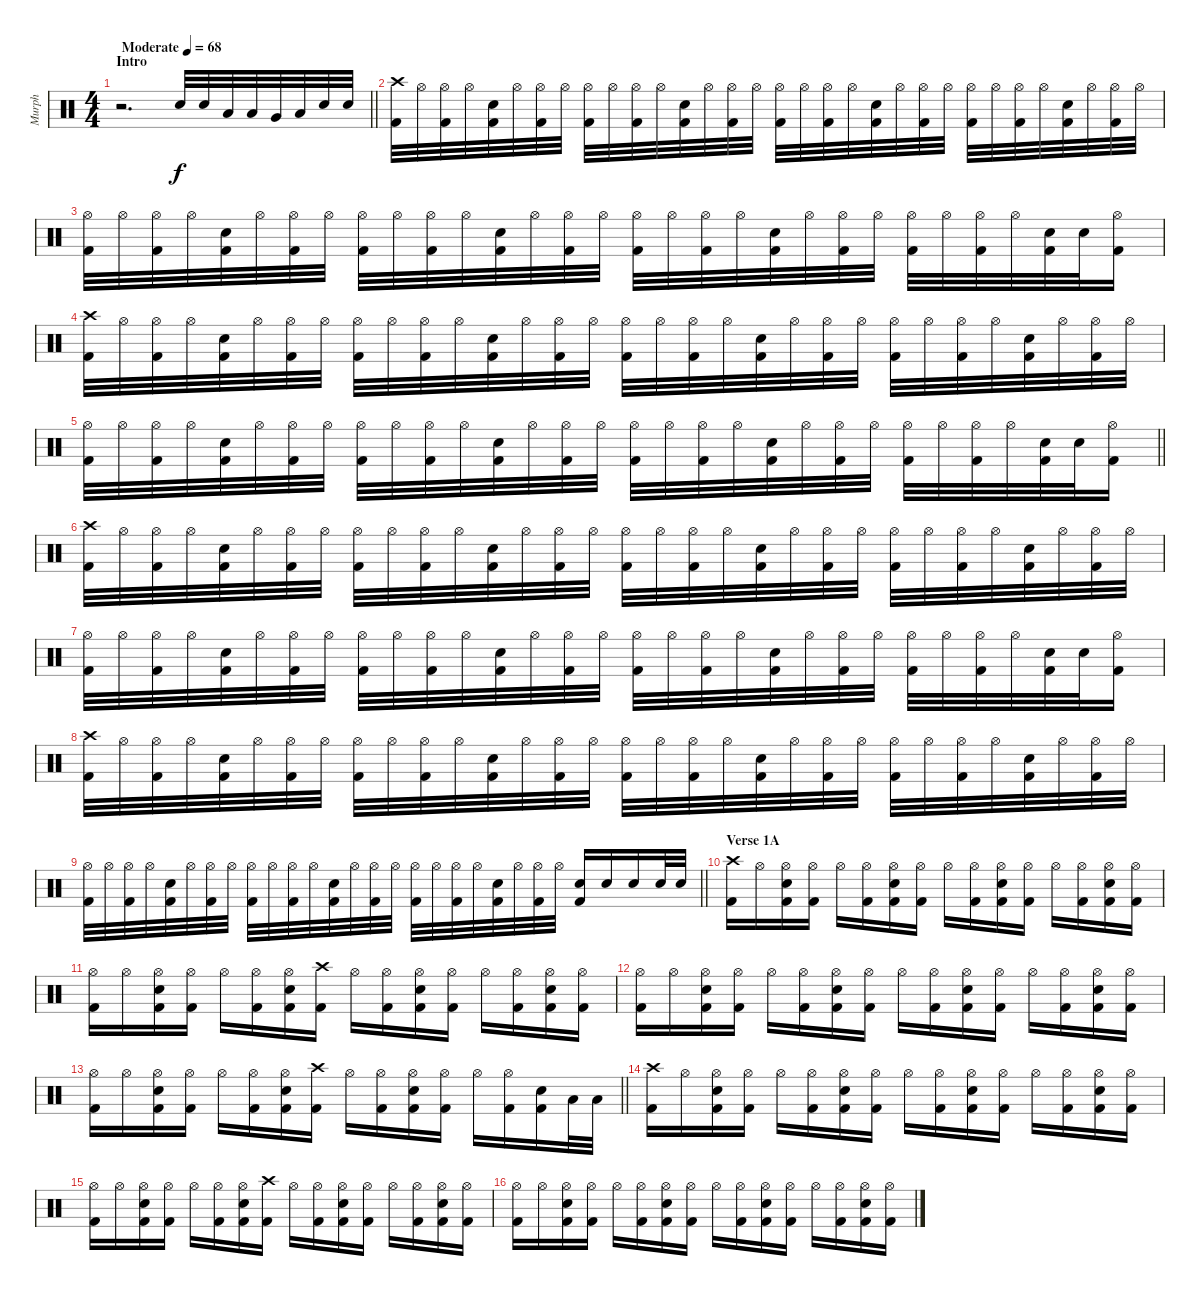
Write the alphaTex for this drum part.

\track ("Murph" "Murph") {instrument percussion}
\staff {score}
\articulation defaults
\ts (4 4)
\section ("" "Intro")
\tempo (68 "Moderate")
\clef neutral
\barLineRight lightlight
\ks c
r.2{d dy f} "Snare (hit) 2".32 "Snare (hit) 2".32 "Low Tom (hit)".32 "Low Floor Tom (hit)".32 "Very Low Tom (hit)".32 "Low Floor Tom (hit)".32 "Snare (hit) 2".32 "Snare (hit) 2".32 |
("Kick (hit) 2" "Crash high (hit)").32 "Hi-Hat (open)".32 ("Kick (hit) 2" "Hi-Hat (open)").32 "Hi-Hat (open)".32 ("Kick (hit) 2" "Snare (hit) 2").32 "Hi-Hat (open)".32 ("Kick (hit) 2" "Hi-Hat (open)").32 "Hi-Hat (open)".32 ("Kick (hit) 2" "Hi-Hat (open)").32 "Hi-Hat (open)".32 ("Kick (hit) 2" "Hi-Hat (open)").32 "Hi-Hat (open)".32 ("Kick (hit) 2" "Snare (hit) 2").32 "Hi-Hat (open)".32 ("Kick (hit) 2" "Hi-Hat (open)").32 "Hi-Hat (open)".32 ("Kick (hit) 2" "Hi-Hat (open)").32 "Hi-Hat (open)".32 ("Kick (hit) 2" "Hi-Hat (open)").32 "Hi-Hat (open)".32 ("Kick (hit) 2" "Snare (hit) 2").32 "Hi-Hat (open)".32 ("Kick (hit) 2" "Hi-Hat (open)").32 "Hi-Hat (open)".32 ("Kick (hit) 2" "Hi-Hat (open)").32 "Hi-Hat (open)".32 ("Kick (hit) 2" "Hi-Hat (open)").32 "Hi-Hat (open)".32 ("Kick (hit) 2" "Snare (hit) 2").32 "Hi-Hat (open)".32 ("Kick (hit) 2" "Hi-Hat (open)").32 "Hi-Hat (open)".32 |
("Kick (hit) 2" "Hi-Hat (open)").32 "Hi-Hat (open)".32 ("Kick (hit) 2" "Hi-Hat (open)").32 "Hi-Hat (open)".32 ("Kick (hit) 2" "Snare (hit) 2").32 "Hi-Hat (open)".32 ("Kick (hit) 2" "Hi-Hat (open)").32 "Hi-Hat (open)".32 ("Kick (hit) 2" "Hi-Hat (open)").32 "Hi-Hat (open)".32 ("Kick (hit) 2" "Hi-Hat (open)").32 "Hi-Hat (open)".32 ("Kick (hit) 2" "Snare (hit) 2").32 "Hi-Hat (open)".32 ("Kick (hit) 2" "Hi-Hat (open)").32 "Hi-Hat (open)".32 ("Kick (hit) 2" "Hi-Hat (open)").32 "Hi-Hat (open)".32 ("Kick (hit) 2" "Hi-Hat (open)").32 "Hi-Hat (open)".32 ("Kick (hit) 2" "Snare (hit) 2").32 "Hi-Hat (open)".32 ("Kick (hit) 2" "Hi-Hat (open)").32 "Hi-Hat (open)".32 ("Kick (hit) 2" "Hi-Hat (open)").32 "Hi-Hat (open)".32 ("Kick (hit) 2" "Hi-Hat (open)").32 "Hi-Hat (open)".32 ("Kick (hit) 2" "Snare (hit) 2").32 "Snare (hit) 2".32 ("Kick (hit) 2" "Hi-Hat (open)").16 |
("Kick (hit) 2" "Crash high (hit)").32 "Hi-Hat (open)".32 ("Kick (hit) 2" "Hi-Hat (open)").32 "Hi-Hat (open)".32 ("Kick (hit) 2" "Snare (hit) 2").32 "Hi-Hat (open)".32 ("Kick (hit) 2" "Hi-Hat (open)").32 "Hi-Hat (open)".32 ("Kick (hit) 2" "Hi-Hat (open)").32 "Hi-Hat (open)".32 ("Kick (hit) 2" "Hi-Hat (open)").32 "Hi-Hat (open)".32 ("Kick (hit) 2" "Snare (hit) 2").32 "Hi-Hat (open)".32 ("Kick (hit) 2" "Hi-Hat (open)").32 "Hi-Hat (open)".32 ("Kick (hit) 2" "Hi-Hat (open)").32 "Hi-Hat (open)".32 ("Kick (hit) 2" "Hi-Hat (open)").32 "Hi-Hat (open)".32 ("Kick (hit) 2" "Snare (hit) 2").32 "Hi-Hat (open)".32 ("Kick (hit) 2" "Hi-Hat (open)").32 "Hi-Hat (open)".32 ("Kick (hit) 2" "Hi-Hat (open)").32 "Hi-Hat (open)".32 ("Kick (hit) 2" "Hi-Hat (open)").32 "Hi-Hat (open)".32 ("Kick (hit) 2" "Snare (hit) 2").32 "Hi-Hat (open)".32 ("Kick (hit) 2" "Hi-Hat (open)").32 "Hi-Hat (open)".32 |
\barLineRight lightlight
("Kick (hit) 2" "Hi-Hat (open)").32 "Hi-Hat (open)".32 ("Kick (hit) 2" "Hi-Hat (open)").32 "Hi-Hat (open)".32 ("Kick (hit) 2" "Snare (hit) 2").32 "Hi-Hat (open)".32 ("Kick (hit) 2" "Hi-Hat (open)").32 "Hi-Hat (open)".32 ("Kick (hit) 2" "Hi-Hat (open)").32 "Hi-Hat (open)".32 ("Kick (hit) 2" "Hi-Hat (open)").32 "Hi-Hat (open)".32 ("Kick (hit) 2" "Snare (hit) 2").32 "Hi-Hat (open)".32 ("Kick (hit) 2" "Hi-Hat (open)").32 "Hi-Hat (open)".32 ("Kick (hit) 2" "Hi-Hat (open)").32 "Hi-Hat (open)".32 ("Kick (hit) 2" "Hi-Hat (open)").32 "Hi-Hat (open)".32 ("Kick (hit) 2" "Snare (hit) 2").32 "Hi-Hat (open)".32 ("Kick (hit) 2" "Hi-Hat (open)").32 "Hi-Hat (open)".32 ("Kick (hit) 2" "Hi-Hat (open)").32 "Hi-Hat (open)".32 ("Kick (hit) 2" "Hi-Hat (open)").32 "Hi-Hat (open)".32 ("Kick (hit) 2" "Snare (hit) 2").32 "Snare (hit) 2".32 ("Kick (hit) 2" "Hi-Hat (open)").16 |
("Kick (hit) 2" "Crash high (hit)").32 "Hi-Hat (open)".32 ("Kick (hit) 2" "Hi-Hat (open)").32 "Hi-Hat (open)".32 ("Kick (hit) 2" "Snare (hit) 2").32 "Hi-Hat (open)".32 ("Kick (hit) 2" "Hi-Hat (open)").32 "Hi-Hat (open)".32 ("Kick (hit) 2" "Hi-Hat (open)").32 "Hi-Hat (open)".32 ("Kick (hit) 2" "Hi-Hat (open)").32 "Hi-Hat (open)".32 ("Kick (hit) 2" "Snare (hit) 2").32 "Hi-Hat (open)".32 ("Kick (hit) 2" "Hi-Hat (open)").32 "Hi-Hat (open)".32 ("Kick (hit) 2" "Hi-Hat (open)").32 "Hi-Hat (open)".32 ("Kick (hit) 2" "Hi-Hat (open)").32 "Hi-Hat (open)".32 ("Kick (hit) 2" "Snare (hit) 2").32 "Hi-Hat (open)".32 ("Kick (hit) 2" "Hi-Hat (open)").32 "Hi-Hat (open)".32 ("Kick (hit) 2" "Hi-Hat (open)").32 "Hi-Hat (open)".32 ("Kick (hit) 2" "Hi-Hat (open)").32 "Hi-Hat (open)".32 ("Kick (hit) 2" "Snare (hit) 2").32 "Hi-Hat (open)".32 ("Kick (hit) 2" "Hi-Hat (open)").32 "Hi-Hat (open)".32 |
("Kick (hit) 2" "Hi-Hat (open)").32 "Hi-Hat (open)".32 ("Kick (hit) 2" "Hi-Hat (open)").32 "Hi-Hat (open)".32 ("Kick (hit) 2" "Snare (hit) 2").32 "Hi-Hat (open)".32 ("Kick (hit) 2" "Hi-Hat (open)").32 "Hi-Hat (open)".32 ("Kick (hit) 2" "Hi-Hat (open)").32 "Hi-Hat (open)".32 ("Kick (hit) 2" "Hi-Hat (open)").32 "Hi-Hat (open)".32 ("Kick (hit) 2" "Snare (hit) 2").32 "Hi-Hat (open)".32 ("Kick (hit) 2" "Hi-Hat (open)").32 "Hi-Hat (open)".32 ("Kick (hit) 2" "Hi-Hat (open)").32 "Hi-Hat (open)".32 ("Kick (hit) 2" "Hi-Hat (open)").32 "Hi-Hat (open)".32 ("Kick (hit) 2" "Snare (hit) 2").32 "Hi-Hat (open)".32 ("Kick (hit) 2" "Hi-Hat (open)").32 "Hi-Hat (open)".32 ("Kick (hit) 2" "Hi-Hat (open)").32 "Hi-Hat (open)".32 ("Kick (hit) 2" "Hi-Hat (open)").32 "Hi-Hat (open)".32 ("Kick (hit) 2" "Snare (hit) 2").32 "Snare (hit) 2".32 ("Kick (hit) 2" "Hi-Hat (open)").16 |
("Kick (hit) 2" "Crash high (hit)").32 "Hi-Hat (open)".32 ("Kick (hit) 2" "Hi-Hat (open)").32 "Hi-Hat (open)".32 ("Kick (hit) 2" "Snare (hit) 2").32 "Hi-Hat (open)".32 ("Kick (hit) 2" "Hi-Hat (open)").32 "Hi-Hat (open)".32 ("Kick (hit) 2" "Hi-Hat (open)").32 "Hi-Hat (open)".32 ("Kick (hit) 2" "Hi-Hat (open)").32 "Hi-Hat (open)".32 ("Kick (hit) 2" "Snare (hit) 2").32 "Hi-Hat (open)".32 ("Kick (hit) 2" "Hi-Hat (open)").32 "Hi-Hat (open)".32 ("Kick (hit) 2" "Hi-Hat (open)").32 "Hi-Hat (open)".32 ("Kick (hit) 2" "Hi-Hat (open)").32 "Hi-Hat (open)".32 ("Kick (hit) 2" "Snare (hit) 2").32 "Hi-Hat (open)".32 ("Kick (hit) 2" "Hi-Hat (open)").32 "Hi-Hat (open)".32 ("Kick (hit) 2" "Hi-Hat (open)").32 "Hi-Hat (open)".32 ("Kick (hit) 2" "Hi-Hat (open)").32 "Hi-Hat (open)".32 ("Kick (hit) 2" "Snare (hit) 2").32 "Hi-Hat (open)".32 ("Kick (hit) 2" "Hi-Hat (open)").32 "Hi-Hat (open)".32 |
\barLineRight lightlight
("Kick (hit) 2" "Hi-Hat (open)").32 "Hi-Hat (open)".32 ("Kick (hit) 2" "Hi-Hat (open)").32 "Hi-Hat (open)".32 ("Kick (hit) 2" "Snare (hit) 2").32 "Hi-Hat (open)".32 ("Kick (hit) 2" "Hi-Hat (open)").32 "Hi-Hat (open)".32 ("Kick (hit) 2" "Hi-Hat (open)").32 "Hi-Hat (open)".32 ("Kick (hit) 2" "Hi-Hat (open)").32 "Hi-Hat (open)".32 ("Kick (hit) 2" "Snare (hit) 2").32 "Hi-Hat (open)".32 ("Kick (hit) 2" "Hi-Hat (open)").32 "Hi-Hat (open)".32 ("Kick (hit) 2" "Hi-Hat (open)").32 "Hi-Hat (open)".32 ("Kick (hit) 2" "Hi-Hat (open)").32 "Hi-Hat (open)".32 ("Kick (hit) 2" "Snare (hit) 2").32 "Hi-Hat (open)".32 ("Kick (hit) 2" "Hi-Hat (open)").32 "Hi-Hat (open)".32 ("Kick (hit) 2" "Snare (hit) 2").16 "Snare (hit) 2".16 "Snare (hit) 2".16 "Snare (hit) 2".32 "Snare (hit) 2".32 |
\section ("" "Verse 1A")
("Kick (hit) 2" "Crash high (hit)").16 "Hi-Hat (open)".16 ("Kick (hit) 2" "Snare (hit) 2" "Hi-Hat (open)").16 ("Kick (hit) 2" "Hi-Hat (open)").16 "Hi-Hat (open)".16 ("Kick (hit) 2" "Hi-Hat (open)").16 ("Kick (hit) 2" "Snare (hit) 2" "Hi-Hat (open)").16 ("Kick (hit) 2" "Hi-Hat (open)").16 "Hi-Hat (open)".16 ("Kick (hit) 2" "Hi-Hat (open)").16 ("Kick (hit) 2" "Snare (hit) 2" "Hi-Hat (open)").16 ("Kick (hit) 2" "Hi-Hat (open)").16 "Hi-Hat (open)".16 ("Kick (hit) 2" "Hi-Hat (open)").16 ("Kick (hit) 2" "Snare (hit) 2" "Hi-Hat (open)").16 ("Kick (hit) 2" "Hi-Hat (open)").16 |
("Kick (hit) 2" "Hi-Hat (open)").16 "Hi-Hat (open)".16 ("Kick (hit) 2" "Snare (hit) 2" "Hi-Hat (open)").16 ("Kick (hit) 2" "Hi-Hat (open)").16 "Hi-Hat (open)".16 ("Kick (hit) 2" "Hi-Hat (open)").16 ("Kick (hit) 2" "Snare (hit) 2" "Hi-Hat (open)").16 ("Kick (hit) 2" "Crash high (hit)").16 "Hi-Hat (open)".16 ("Kick (hit) 2" "Hi-Hat (open)").16 ("Kick (hit) 2" "Snare (hit) 2" "Hi-Hat (open)").16 ("Kick (hit) 2" "Hi-Hat (open)").16 "Hi-Hat (open)".16 ("Kick (hit) 2" "Hi-Hat (open)").16 ("Kick (hit) 2" "Snare (hit) 2" "Hi-Hat (open)").16 ("Kick (hit) 2" "Hi-Hat (open)").16 |
("Kick (hit) 2" "Hi-Hat (open)").16 "Hi-Hat (open)".16 ("Kick (hit) 2" "Snare (hit) 2" "Hi-Hat (open)").16 ("Kick (hit) 2" "Hi-Hat (open)").16 "Hi-Hat (open)".16 ("Kick (hit) 2" "Hi-Hat (open)").16 ("Kick (hit) 2" "Snare (hit) 2" "Hi-Hat (open)").16 ("Kick (hit) 2" "Hi-Hat (open)").16 "Hi-Hat (open)".16 ("Kick (hit) 2" "Hi-Hat (open)").16 ("Kick (hit) 2" "Snare (hit) 2" "Hi-Hat (open)").16 ("Kick (hit) 2" "Hi-Hat (open)").16 "Hi-Hat (open)".16 ("Kick (hit) 2" "Hi-Hat (open)").16 ("Kick (hit) 2" "Snare (hit) 2" "Hi-Hat (open)").16 ("Kick (hit) 2" "Hi-Hat (open)").16 |
\barLineRight lightlight
("Kick (hit) 2" "Hi-Hat (open)").16 "Hi-Hat (open)".16 ("Kick (hit) 2" "Snare (hit) 2" "Hi-Hat (open)").16 ("Kick (hit) 2" "Hi-Hat (open)").16 "Hi-Hat (open)".16 ("Kick (hit) 2" "Hi-Hat (open)").16 ("Kick (hit) 2" "Snare (hit) 2" "Hi-Hat (open)").16 ("Kick (hit) 2" "Crash high (hit)").16 "Hi-Hat (open)".16 ("Kick (hit) 2" "Hi-Hat (open)").16 ("Kick (hit) 2" "Snare (hit) 2" "Hi-Hat (open)").16 ("Kick (hit) 2" "Hi-Hat (open)").16 "Hi-Hat (open)".16 ("Kick (hit) 2" "Hi-Hat (open)").16 ("Kick (hit) 2" "Snare (hit) 2").16 "Low Tom (hit)".32 "Low Tom (hit)".32 |
("Kick (hit) 2" "Crash high (hit)").16 "Hi-Hat (open)".16 ("Kick (hit) 2" "Snare (hit) 2" "Hi-Hat (open)").16 ("Kick (hit) 2" "Hi-Hat (open)").16 "Hi-Hat (open)".16 ("Kick (hit) 2" "Hi-Hat (open)").16 ("Kick (hit) 2" "Snare (hit) 2" "Hi-Hat (open)").16 ("Kick (hit) 2" "Hi-Hat (open)").16 "Hi-Hat (open)".16 ("Kick (hit) 2" "Hi-Hat (open)").16 ("Kick (hit) 2" "Snare (hit) 2" "Hi-Hat (open)").16 ("Kick (hit) 2" "Hi-Hat (open)").16 "Hi-Hat (open)".16 ("Kick (hit) 2" "Hi-Hat (open)").16 ("Kick (hit) 2" "Snare (hit) 2" "Hi-Hat (open)").16 ("Kick (hit) 2" "Hi-Hat (open)").16 |
("Kick (hit) 2" "Hi-Hat (open)").16 "Hi-Hat (open)".16 ("Kick (hit) 2" "Snare (hit) 2" "Hi-Hat (open)").16 ("Kick (hit) 2" "Hi-Hat (open)").16 "Hi-Hat (open)".16 ("Kick (hit) 2" "Hi-Hat (open)").16 ("Kick (hit) 2" "Snare (hit) 2" "Hi-Hat (open)").16 ("Kick (hit) 2" "Crash high (hit)").16 "Hi-Hat (open)".16 ("Kick (hit) 2" "Hi-Hat (open)").16 ("Kick (hit) 2" "Snare (hit) 2" "Hi-Hat (open)").16 ("Kick (hit) 2" "Hi-Hat (open)").16 "Hi-Hat (open)".16 ("Kick (hit) 2" "Hi-Hat (open)").16 ("Kick (hit) 2" "Snare (hit) 2" "Hi-Hat (open)").16 ("Kick (hit) 2" "Hi-Hat (open)").16 |
("Kick (hit) 2" "Hi-Hat (open)").16 "Hi-Hat (open)".16 ("Kick (hit) 2" "Snare (hit) 2" "Hi-Hat (open)").16 ("Kick (hit) 2" "Hi-Hat (open)").16 "Hi-Hat (open)".16 ("Kick (hit) 2" "Hi-Hat (open)").16 ("Kick (hit) 2" "Snare (hit) 2" "Hi-Hat (open)").16 ("Kick (hit) 2" "Hi-Hat (open)").16 "Hi-Hat (open)".16 ("Kick (hit) 2" "Hi-Hat (open)").16 ("Kick (hit) 2" "Snare (hit) 2" "Hi-Hat (open)").16 ("Kick (hit) 2" "Hi-Hat (open)").16 "Hi-Hat (open)".16 ("Kick (hit) 2" "Hi-Hat (open)").16 ("Kick (hit) 2" "Snare (hit) 2" "Hi-Hat (open)").16 ("Kick (hit) 2" "Hi-Hat (open)").16
